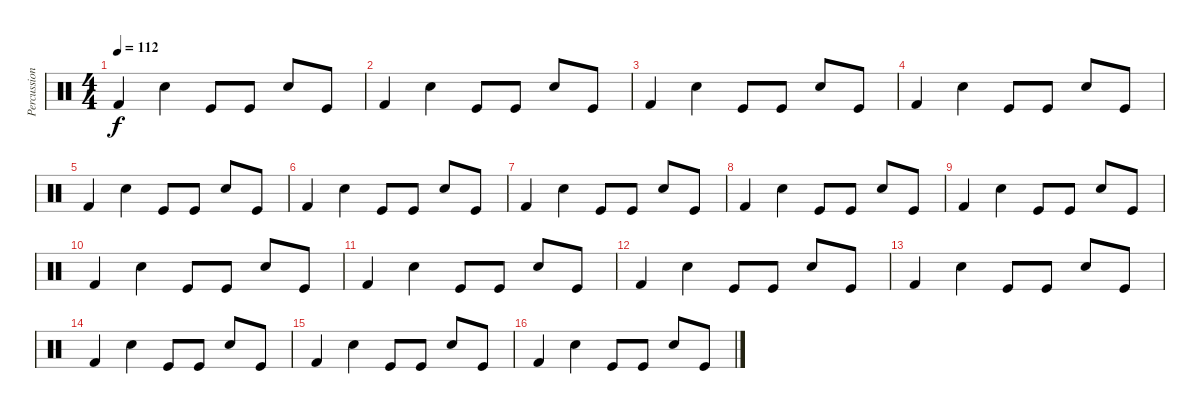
\track ("Percussions" "Percussion") {instrument percussion}
\staff {score}
\articulation defaults
\ts (4 4)
\tempo 112
\clef neutral
\ks c "Kick (hit) 2".4{dy f} "Snare (hit) 2".4 "Kick (hit)".8 "Kick (hit)".8 "Snare (hit) 2".8 "Kick (hit)".8
|
"Kick (hit) 2".4 "Snare (hit) 2".4 "Kick (hit)".8 "Kick (hit)".8 "Snare (hit) 2".8 "Kick (hit)".8 |
"Kick (hit) 2".4 "Snare (hit) 2".4 "Kick (hit)".8 "Kick (hit)".8 "Snare (hit) 2".8 "Kick (hit)".8 |
"Kick (hit) 2".4 "Snare (hit) 2".4 "Kick (hit)".8 "Kick (hit)".8 "Snare (hit) 2".8 "Kick (hit)".8 |
"Kick (hit) 2".4 "Snare (hit) 2".4 "Kick (hit)".8 "Kick (hit)".8 "Snare (hit) 2".8 "Kick (hit)".8 |
"Kick (hit) 2".4 "Snare (hit) 2".4 "Kick (hit)".8 "Kick (hit)".8 "Snare (hit) 2".8 "Kick (hit)".8 |
"Kick (hit) 2".4 "Snare (hit) 2".4 "Kick (hit)".8 "Kick (hit)".8 "Snare (hit) 2".8 "Kick (hit)".8 |
"Kick (hit) 2".4 "Snare (hit) 2".4 "Kick (hit)".8 "Kick (hit)".8 "Snare (hit) 2".8 "Kick (hit)".8 |
"Kick (hit) 2".4 "Snare (hit) 2".4 "Kick (hit)".8 "Kick (hit)".8 "Snare (hit) 2".8 "Kick (hit)".8 |
"Kick (hit) 2".4 "Snare (hit) 2".4 "Kick (hit)".8 "Kick (hit)".8 "Snare (hit) 2".8 "Kick (hit)".8 |
"Kick (hit) 2".4 "Snare (hit) 2".4 "Kick (hit)".8 "Kick (hit)".8 "Snare (hit) 2".8 "Kick (hit)".8 |
"Kick (hit) 2".4 "Snare (hit) 2".4 "Kick (hit)".8 "Kick (hit)".8 "Snare (hit) 2".8 "Kick (hit)".8 |
"Kick (hit) 2".4 "Snare (hit) 2".4 "Kick (hit)".8 "Kick (hit)".8 "Snare (hit) 2".8 "Kick (hit)".8 |
"Kick (hit) 2".4 "Snare (hit) 2".4 "Kick (hit)".8 "Kick (hit)".8 "Snare (hit) 2".8 "Kick (hit)".8 |
"Kick (hit) 2".4 "Snare (hit) 2".4 "Kick (hit)".8 "Kick (hit)".8 "Snare (hit) 2".8 "Kick (hit)".8 |
"Kick (hit) 2".4 "Snare (hit) 2".4 "Kick (hit)".8 "Kick (hit)".8 "Snare (hit) 2".8 "Kick (hit)".8
